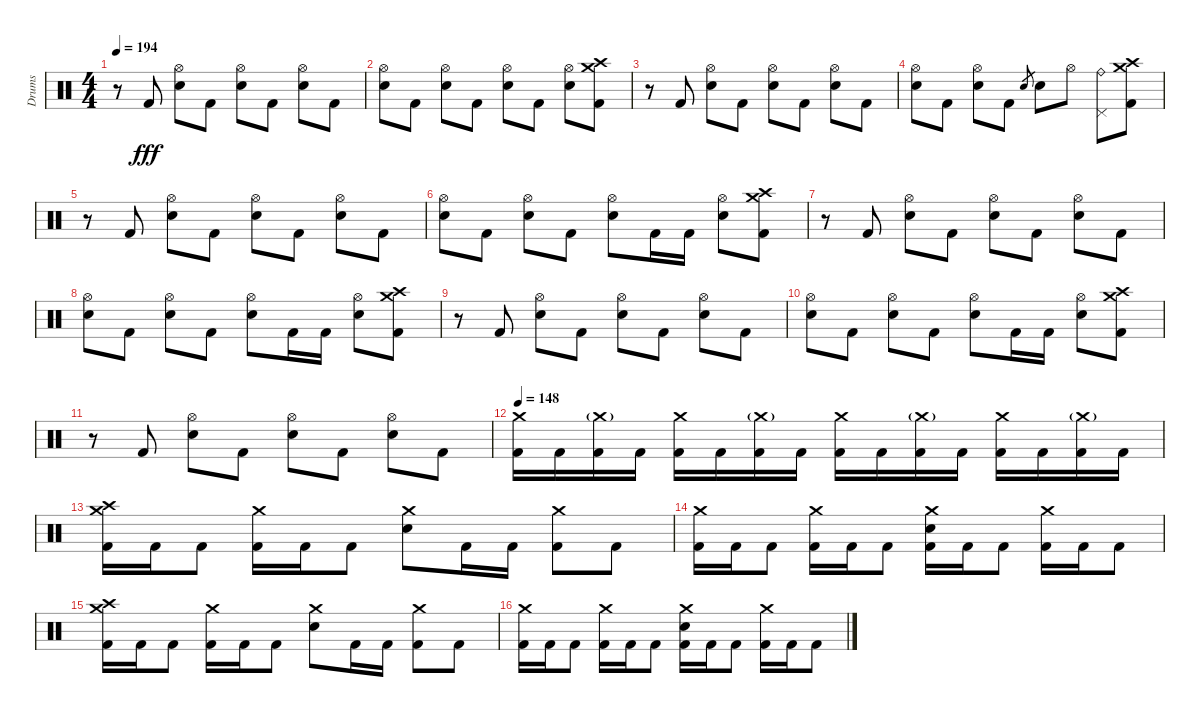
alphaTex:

\track ("Drums" "Drums") {instrument percussion}
\staff {score}
\articulation defaults
\ts (4 4)
\tempo 194
\clef neutral
\ks c
r.8{dy fff} "Kick (hit) 2".8 ("Hi-Hat (open)" "Electric Snare (hit)").8 "Kick (hit) 2".8 ("Hi-Hat (open)" "Electric Snare (hit)").8 "Kick (hit) 2".8 ("Hi-Hat (open)" "Electric Snare (hit)").8 "Kick (hit) 2".8 |
("Hi-Hat (open)" "Electric Snare (hit)").8 "Kick (hit) 2".8 ("Hi-Hat (open)" "Electric Snare (hit)").8 "Kick (hit) 2".8 ("Hi-Hat (open)" "Electric Snare (hit)").8 "Kick (hit) 2".8 ("Hi-Hat (open)" "Electric Snare (hit)").8 ("Crash medium (hit)" "Crash high (hit)" "Kick (hit) 2").8 |
r.8 "Kick (hit) 2".8 ("Hi-Hat (open)" "Electric Snare (hit)").8 "Kick (hit) 2".8 ("Hi-Hat (open)" "Electric Snare (hit)").8 "Kick (hit) 2".8 ("Hi-Hat (open)" "Electric Snare (hit)").8 "Kick (hit) 2".8 |
("Hi-Hat (open)" "Electric Snare (hit)").8 "Kick (hit) 2".8 ("Hi-Hat (open)" "Electric Snare (hit)").8 "Kick (hit) 2".8 "Electric Snare (hit)".8{gr} "Electric Snare (hit)".8 "Hi-Hat (open)".8 ("Ride (bell)" "Pedal Hi-Hat (hit)").8 ("Crash medium (hit)" "Crash high (hit)" "Kick (hit) 2").8 |
r.8 "Kick (hit) 2".8 ("Hi-Hat (open)" "Electric Snare (hit)").8 "Kick (hit) 2".8 ("Hi-Hat (open)" "Electric Snare (hit)").8 "Kick (hit) 2".8 ("Hi-Hat (open)" "Electric Snare (hit)").8 "Kick (hit) 2".8 |
("Hi-Hat (open)" "Electric Snare (hit)").8 "Kick (hit) 2".8 ("Hi-Hat (open)" "Electric Snare (hit)").8 "Kick (hit) 2".8 ("Hi-Hat (open)" "Electric Snare (hit)").8 "Kick (hit) 2".16 "Kick (hit) 2".16 ("Hi-Hat (open)" "Electric Snare (hit)").8 ("Crash medium (hit)" "Crash high (hit)" "Kick (hit) 2").8 |
r.8 "Kick (hit) 2".8 ("Hi-Hat (open)" "Electric Snare (hit)").8 "Kick (hit) 2".8 ("Hi-Hat (open)" "Electric Snare (hit)").8 "Kick (hit) 2".8 ("Hi-Hat (open)" "Electric Snare (hit)").8 "Kick (hit) 2".8 |
("Hi-Hat (open)" "Electric Snare (hit)").8 "Kick (hit) 2".8 ("Hi-Hat (open)" "Electric Snare (hit)").8 "Kick (hit) 2".8 ("Hi-Hat (open)" "Electric Snare (hit)").8 "Kick (hit) 2".16 "Kick (hit) 2".16 ("Hi-Hat (open)" "Electric Snare (hit)").8 ("Crash medium (hit)" "Crash high (hit)" "Kick (hit) 2").8 |
r.8 "Kick (hit) 2".8 ("Hi-Hat (open)" "Electric Snare (hit)").8 "Kick (hit) 2".8 ("Hi-Hat (open)" "Electric Snare (hit)").8 "Kick (hit) 2".8 ("Hi-Hat (open)" "Electric Snare (hit)").8 "Kick (hit) 2".8 |
("Hi-Hat (open)" "Electric Snare (hit)").8 "Kick (hit) 2".8 ("Hi-Hat (open)" "Electric Snare (hit)").8 "Kick (hit) 2".8 ("Hi-Hat (open)" "Electric Snare (hit)").8 "Kick (hit) 2".16 "Kick (hit) 2".16 ("Hi-Hat (open)" "Electric Snare (hit)").8 ("Crash medium (hit)" "Crash high (hit)" "Kick (hit) 2").8 |
r.8 "Kick (hit) 2".8 ("Hi-Hat (open)" "Electric Snare (hit)").8 "Kick (hit) 2".8 ("Hi-Hat (open)" "Electric Snare (hit)").8 "Kick (hit) 2".8 ("Hi-Hat (open)" "Electric Snare (hit)").8 "Kick (hit) 2".8 |
\tempo 148
("Crash medium (hit)" "Kick (hit) 2").16 "Kick (hit) 2".16 ("Crash medium (hit)"{g} "Kick (hit) 2").16 "Kick (hit) 2".16 ("Crash medium (hit)" "Kick (hit) 2").16 "Kick (hit) 2".16 ("Crash medium (hit)"{g} "Kick (hit) 2").16 "Kick (hit) 2".16 ("Crash medium (hit)" "Kick (hit) 2").16 "Kick (hit) 2".16 ("Crash medium (hit)"{g} "Kick (hit) 2").16 "Kick (hit) 2".16 ("Crash medium (hit)" "Kick (hit) 2").16 "Kick (hit) 2".16 ("Crash medium (hit)"{g} "Kick (hit) 2").16 "Kick (hit) 2".16 |
("Crash medium (hit)" "Crash high (hit)" "Kick (hit) 2").16 "Kick (hit) 2".16 "Kick (hit) 2".8 ("Crash medium (hit)" "Kick (hit) 2").16 "Kick (hit) 2".16 "Kick (hit) 2".8 ("Crash medium (hit)" "Electric Snare (hit)").8 "Kick (hit) 2".16 "Kick (hit) 2".16 ("Crash medium (hit)" "Kick (hit) 2").8 "Kick (hit) 2".8 |
("Crash medium (hit)" "Kick (hit) 2").16 "Kick (hit) 2".16 "Kick (hit) 2".8 ("Crash medium (hit)" "Kick (hit) 2").16 "Kick (hit) 2".16 "Kick (hit) 2".8 ("Crash medium (hit)" "Electric Snare (hit)" "Kick (hit) 2").16 "Kick (hit) 2".16 "Kick (hit) 2".8 ("Crash medium (hit)" "Kick (hit) 2").16 "Kick (hit) 2".16 "Kick (hit) 2".8 |
("Crash medium (hit)" "Crash high (hit)" "Kick (hit) 2").16 "Kick (hit) 2".16 "Kick (hit) 2".8 ("Crash medium (hit)" "Kick (hit) 2").16 "Kick (hit) 2".16 "Kick (hit) 2".8 ("Crash medium (hit)" "Electric Snare (hit)").8 "Kick (hit) 2".16 "Kick (hit) 2".16 ("Crash medium (hit)" "Kick (hit) 2").8 "Kick (hit) 2".8 |
("Crash medium (hit)" "Kick (hit) 2").16 "Kick (hit) 2".16 "Kick (hit) 2".8 ("Crash medium (hit)" "Kick (hit) 2").16 "Kick (hit) 2".16 "Kick (hit) 2".8 ("Crash medium (hit)" "Electric Snare (hit)" "Kick (hit) 2").16 "Kick (hit) 2".16 "Kick (hit) 2".8 ("Crash medium (hit)" "Kick (hit) 2").16 "Kick (hit) 2".16 "Kick (hit) 2".8
